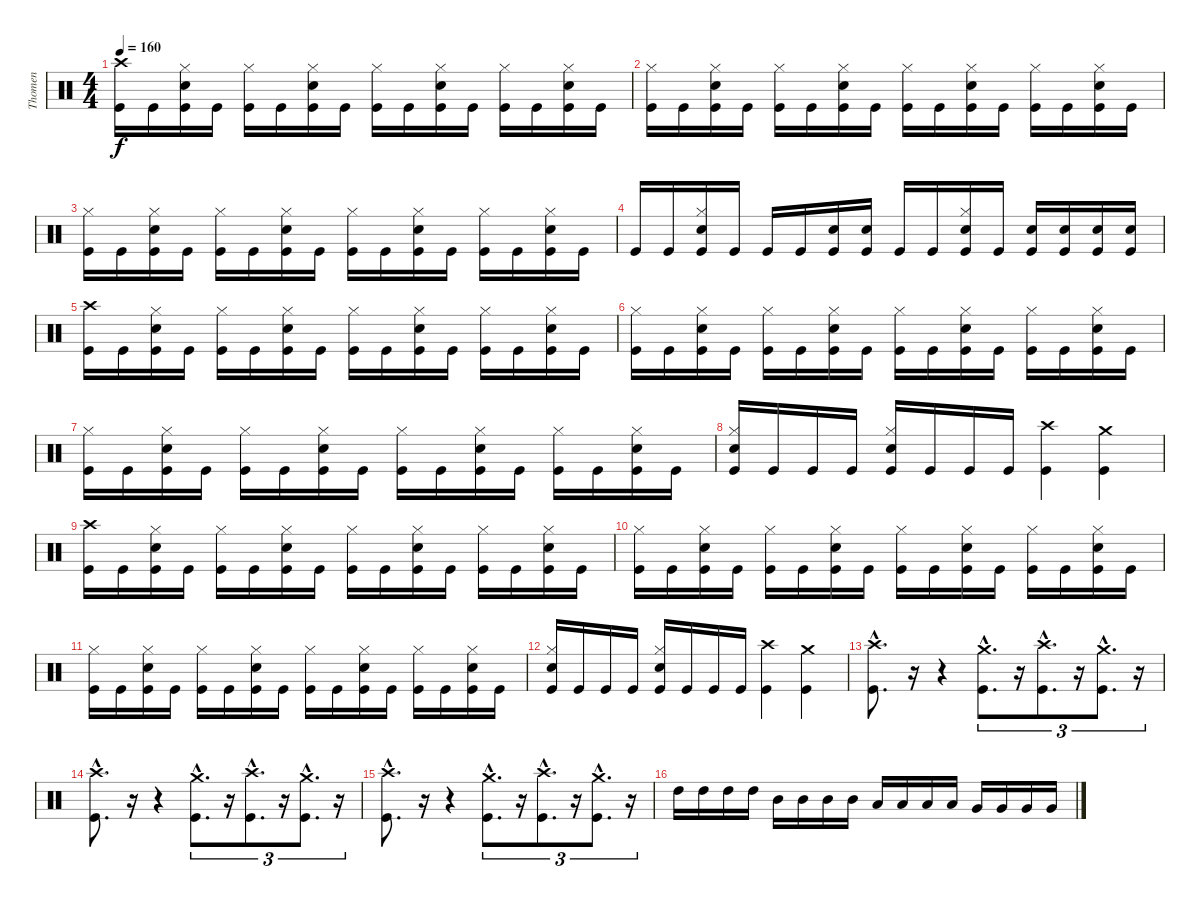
\track ("Thomen" "Thomen") {instrument percussion}
\staff {score}
\articulation defaults
\ts (4 4)
\tempo 160
\clef neutral
\ks c
("Crash high (hit)" "Kick (hit)").16{dy f} "Kick (hit)".16 ("Hi-Hat (closed)" "Snare (hit) 2" "Kick (hit)").16 "Kick (hit)".16 ("Hi-Hat (closed)" "Kick (hit)").16 "Kick (hit)".16 ("Hi-Hat (closed)" "Snare (hit) 2" "Kick (hit)").16 "Kick (hit)".16 ("Hi-Hat (closed)" "Kick (hit)").16 "Kick (hit)".16 ("Hi-Hat (closed)" "Snare (hit) 2" "Kick (hit)").16 "Kick (hit)".16 ("Hi-Hat (closed)" "Kick (hit)").16 "Kick (hit)".16 ("Hi-Hat (closed)" "Snare (hit) 2" "Kick (hit)").16 "Kick (hit)".16 |
("Hi-Hat (closed)" "Kick (hit)").16 "Kick (hit)".16 ("Hi-Hat (closed)" "Snare (hit) 2" "Kick (hit)").16 "Kick (hit)".16 ("Hi-Hat (closed)" "Kick (hit)").16 "Kick (hit)".16 ("Hi-Hat (closed)" "Snare (hit) 2" "Kick (hit)").16 "Kick (hit)".16 ("Hi-Hat (closed)" "Kick (hit)").16 "Kick (hit)".16 ("Hi-Hat (closed)" "Snare (hit) 2" "Kick (hit)").16 "Kick (hit)".16 ("Hi-Hat (closed)" "Kick (hit)").16 "Kick (hit)".16 ("Hi-Hat (closed)" "Snare (hit) 2" "Kick (hit)").16 "Kick (hit)".16 |
("Hi-Hat (closed)" "Kick (hit)").16 "Kick (hit)".16 ("Hi-Hat (closed)" "Snare (hit) 2" "Kick (hit)").16 "Kick (hit)".16 ("Hi-Hat (closed)" "Kick (hit)").16 "Kick (hit)".16 ("Hi-Hat (closed)" "Snare (hit) 2" "Kick (hit)").16 "Kick (hit)".16 ("Hi-Hat (closed)" "Kick (hit)").16 "Kick (hit)".16 ("Hi-Hat (closed)" "Snare (hit) 2" "Kick (hit)").16 "Kick (hit)".16 ("Hi-Hat (closed)" "Kick (hit)").16 "Kick (hit)".16 ("Hi-Hat (closed)" "Snare (hit) 2" "Kick (hit)").16 "Kick (hit)".16 |
"Kick (hit)".16 "Kick (hit)".16 ("Hi-Hat (closed)" "Snare (hit) 2" "Kick (hit)").16 "Kick (hit)".16 "Kick (hit)".16 "Kick (hit)".16 ("Snare (hit) 2" "Kick (hit)").16 ("Snare (hit) 2" "Kick (hit)").16 "Kick (hit)".16 "Kick (hit)".16 ("Hi-Hat (closed)" "Snare (hit) 2" "Kick (hit)").16 "Kick (hit)".16 ("Snare (hit) 2" "Kick (hit)").16 ("Snare (hit) 2" "Kick (hit)").16 ("Snare (hit) 2" "Kick (hit)").16 ("Snare (hit) 2" "Kick (hit)").16 |
("Crash high (hit)" "Kick (hit)").16 "Kick (hit)".16 ("Hi-Hat (closed)" "Snare (hit) 2" "Kick (hit)").16 "Kick (hit)".16 ("Hi-Hat (closed)" "Kick (hit)").16 "Kick (hit)".16 ("Hi-Hat (closed)" "Snare (hit) 2" "Kick (hit)").16 "Kick (hit)".16 ("Hi-Hat (closed)" "Kick (hit)").16 "Kick (hit)".16 ("Hi-Hat (closed)" "Snare (hit) 2" "Kick (hit)").16 "Kick (hit)".16 ("Hi-Hat (closed)" "Kick (hit)").16 "Kick (hit)".16 ("Hi-Hat (closed)" "Snare (hit) 2" "Kick (hit)").16 "Kick (hit)".16 |
("Hi-Hat (closed)" "Kick (hit)").16 "Kick (hit)".16 ("Hi-Hat (closed)" "Snare (hit) 2" "Kick (hit)").16 "Kick (hit)".16 ("Hi-Hat (closed)" "Kick (hit)").16 "Kick (hit)".16 ("Hi-Hat (closed)" "Snare (hit) 2" "Kick (hit)").16 "Kick (hit)".16 ("Hi-Hat (closed)" "Kick (hit)").16 "Kick (hit)".16 ("Hi-Hat (closed)" "Snare (hit) 2" "Kick (hit)").16 "Kick (hit)".16 ("Hi-Hat (closed)" "Kick (hit)").16 "Kick (hit)".16 ("Hi-Hat (closed)" "Snare (hit) 2" "Kick (hit)").16 "Kick (hit)".16 |
("Hi-Hat (closed)" "Kick (hit)").16 "Kick (hit)".16 ("Hi-Hat (closed)" "Snare (hit) 2" "Kick (hit)").16 "Kick (hit)".16 ("Hi-Hat (closed)" "Kick (hit)").16 "Kick (hit)".16 ("Hi-Hat (closed)" "Snare (hit) 2" "Kick (hit)").16 "Kick (hit)".16 ("Hi-Hat (closed)" "Kick (hit)").16 "Kick (hit)".16 ("Hi-Hat (closed)" "Snare (hit) 2" "Kick (hit)").16 "Kick (hit)".16 ("Hi-Hat (closed)" "Kick (hit)").16 "Kick (hit)".16 ("Hi-Hat (closed)" "Snare (hit) 2" "Kick (hit)").16 "Kick (hit)".16 |
("Hi-Hat (closed)" "Snare (hit) 2" "Kick (hit)").16 "Kick (hit)".16 "Kick (hit)".16 "Kick (hit)".16 ("Hi-Hat (closed)" "Snare (hit) 2" "Kick (hit)").16 "Kick (hit)".16 "Kick (hit)".16 "Kick (hit)".16 ("Crash high (hit)" "Kick (hit)").4 ("Crash medium (hit)" "Kick (hit)").4 |
("Crash high (hit)" "Kick (hit)").16 "Kick (hit)".16 ("Hi-Hat (closed)" "Snare (hit) 2" "Kick (hit)").16 "Kick (hit)".16 ("Hi-Hat (closed)" "Kick (hit)").16 "Kick (hit)".16 ("Hi-Hat (closed)" "Snare (hit) 2" "Kick (hit)").16 "Kick (hit)".16 ("Hi-Hat (closed)" "Kick (hit)").16 "Kick (hit)".16 ("Hi-Hat (closed)" "Snare (hit) 2" "Kick (hit)").16 "Kick (hit)".16 ("Hi-Hat (closed)" "Kick (hit)").16 "Kick (hit)".16 ("Hi-Hat (closed)" "Snare (hit) 2" "Kick (hit)").16 "Kick (hit)".16 |
("Hi-Hat (closed)" "Kick (hit)").16 "Kick (hit)".16 ("Hi-Hat (closed)" "Snare (hit) 2" "Kick (hit)").16 "Kick (hit)".16 ("Hi-Hat (closed)" "Kick (hit)").16 "Kick (hit)".16 ("Hi-Hat (closed)" "Snare (hit) 2" "Kick (hit)").16 "Kick (hit)".16 ("Hi-Hat (closed)" "Kick (hit)").16 "Kick (hit)".16 ("Hi-Hat (closed)" "Snare (hit) 2" "Kick (hit)").16 "Kick (hit)".16 ("Hi-Hat (closed)" "Kick (hit)").16 "Kick (hit)".16 ("Hi-Hat (closed)" "Snare (hit) 2" "Kick (hit)").16 "Kick (hit)".16 |
("Hi-Hat (closed)" "Kick (hit)").16 "Kick (hit)".16 ("Hi-Hat (closed)" "Snare (hit) 2" "Kick (hit)").16 "Kick (hit)".16 ("Hi-Hat (closed)" "Kick (hit)").16 "Kick (hit)".16 ("Hi-Hat (closed)" "Snare (hit) 2" "Kick (hit)").16 "Kick (hit)".16 ("Hi-Hat (closed)" "Kick (hit)").16 "Kick (hit)".16 ("Hi-Hat (closed)" "Snare (hit) 2" "Kick (hit)").16 "Kick (hit)".16 ("Hi-Hat (closed)" "Kick (hit)").16 "Kick (hit)".16 ("Hi-Hat (closed)" "Snare (hit) 2" "Kick (hit)").16 "Kick (hit)".16 |
("Hi-Hat (closed)" "Snare (hit) 2" "Kick (hit)").16 "Kick (hit)".16 "Kick (hit)".16 "Kick (hit)".16 ("Hi-Hat (closed)" "Snare (hit) 2" "Kick (hit)").16 "Kick (hit)".16 "Kick (hit)".16 "Kick (hit)".16 ("Crash high (hit)" "Kick (hit)").4 ("Crash medium (hit)" "Kick (hit)").4 |
("Crash high (hit)"{hac} "Kick (hit)"{hac}).8{d} r.16{volume 0} r.4 ("Crash medium (hit)"{hac} "Kick (hit)"{hac}).8{d tu (3 2) volume 12} r.16{tu (3 2) volume 0} ("Crash high (hit)"{hac} "Kick (hit)"{hac}).8{d tu (3 2) volume 12} r.16{tu (3 2) volume 0} ("Crash medium (hit)"{hac} "Kick (hit)"{hac}).8{d tu (3 2) volume 12} r.16{tu (3 2) volume 0} |
("Crash high (hit)"{hac} "Kick (hit)"{hac}).8{d volume 12} r.16{volume 0} r.4 ("Crash medium (hit)"{hac} "Kick (hit)"{hac}).8{d tu (3 2) volume 12} r.16{tu (3 2) volume 0} ("Crash high (hit)"{hac} "Kick (hit)"{hac}).8{d tu (3 2) volume 12} r.16{tu (3 2) volume 0} ("Crash medium (hit)"{hac} "Kick (hit)"{hac}).8{d tu (3 2) volume 12} r.16{tu (3 2) volume 0} |
("Crash high (hit)"{hac} "Kick (hit)"{hac}).8{d volume 12} r.16{volume 0} r.4 ("Crash medium (hit)"{hac} "Kick (hit)"{hac}).8{d tu (3 2) volume 12} r.16{tu (3 2) volume 0} ("Crash high (hit)"{hac} "Kick (hit)"{hac}).8{d tu (3 2) volume 12} r.16{tu (3 2) volume 0} ("Crash medium (hit)"{hac} "Kick (hit)"{hac}).8{d tu (3 2) volume 12} r.16{tu (3 2) volume 0} |
"High Tom (hit)".16{volume 12} "High Tom (hit)".16 "High Tom (hit)".16 "High Tom (hit)".16 "Mid Tom (hit)".16 "Mid Tom (hit)".16 "Mid Tom (hit)".16 "Mid Tom (hit)".16 "Low Tom (hit)".16 "Low Tom (hit)".16 "Low Tom (hit)".16 "Low Tom (hit)".16 "Very Low Tom (hit)".16 "Very Low Tom (hit)".16 "Very Low Tom (hit)".16 "Very Low Tom (hit)".16
